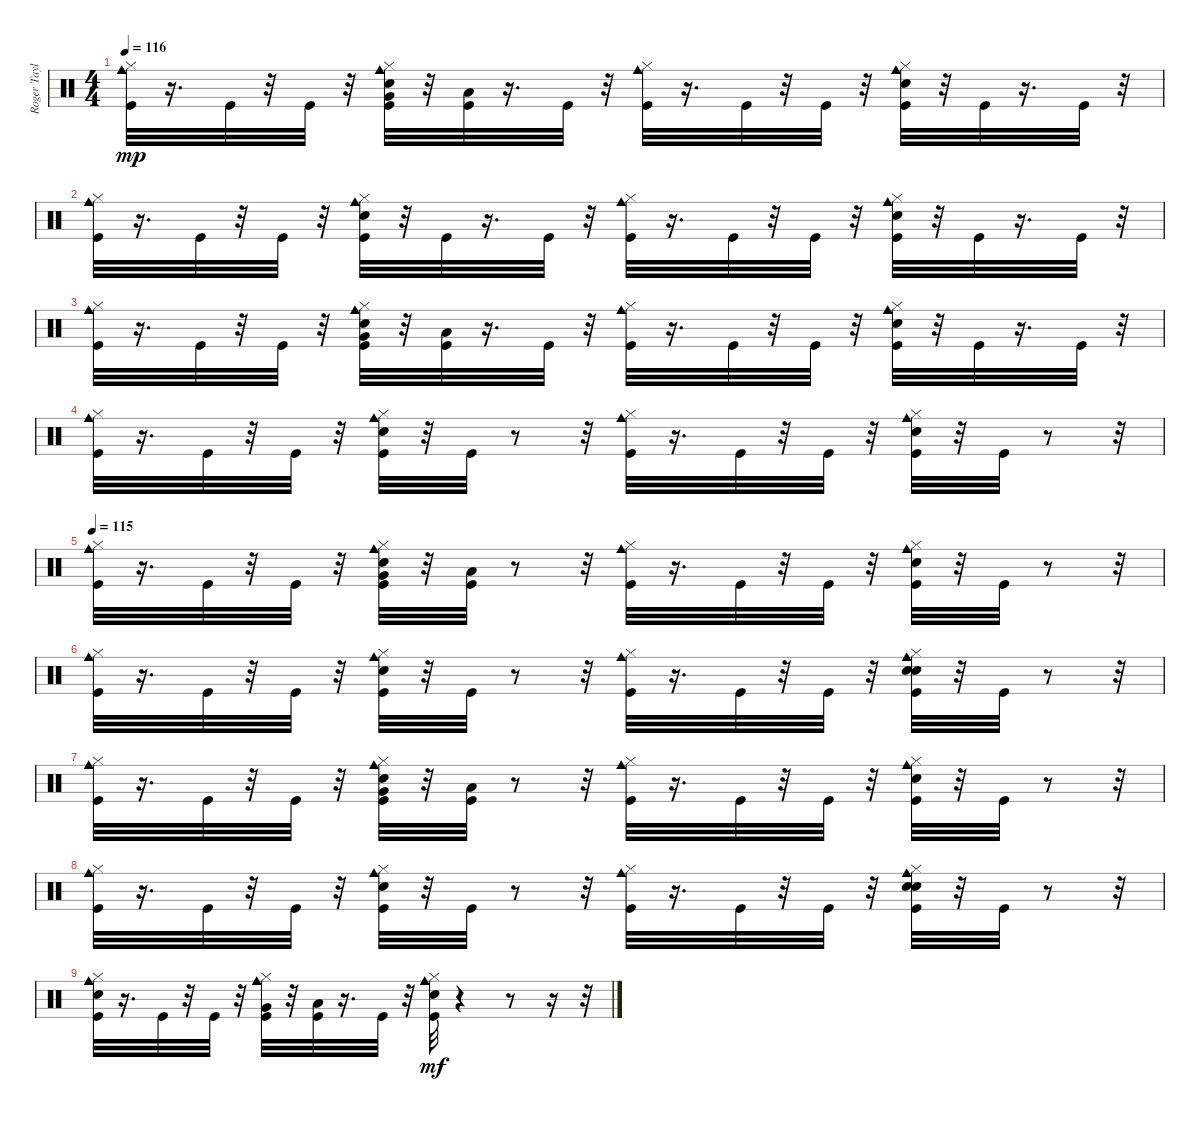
\track ("Roger Taylor" "Roger Tayl") {instrument percussion}
\staff {score}
\articulation defaults
\ts (4 4)
\tempo 116
\clef neutral
\ks c
("Cowbell medium (hit)" "Hi-Hat (closed)" "Kick (hit)").32{dy mp} r.16{d} "Kick (hit)".32 r.32 "Kick (hit)".32 r.32 ("Very Low Tom (hit)" "Hand Clap (hit)" "Cowbell medium (hit)" "Hi-Hat (closed)" "Kick (hit)").32 r.32 ("Low Floor Tom (hit)" "Kick (hit)").32 r.16{d} "Kick (hit)".32 r.32 ("Cowbell medium (hit)" "Hi-Hat (closed)" "Kick (hit)").32 r.16{d} "Kick (hit)".32 r.32 "Kick (hit)".32 r.32 ("Snare (hit)" "Cowbell medium (hit)" "Hi-Hat (closed)" "Kick (hit)").32 r.32 "Kick (hit)".32 r.16{d} "Kick (hit)".32 r.32 |
("Cowbell medium (hit)" "Hi-Hat (closed)" "Kick (hit)").32 r.16{d} "Kick (hit)".32 r.32 "Kick (hit)".32 r.32 ("Snare (hit)" "Cowbell medium (hit)" "Hi-Hat (closed)" "Kick (hit)").32 r.32 "Kick (hit)".32 r.16{d} "Kick (hit)".32 r.32 ("Cowbell medium (hit)" "Hi-Hat (closed)" "Kick (hit)").32 r.16{d} "Kick (hit)".32 r.32 "Kick (hit)".32 r.32 ("Snare (hit)" "Cowbell medium (hit)" "Hi-Hat (closed)" "Kick (hit)").32 r.32 "Kick (hit)".32 r.16{d} "Kick (hit)".32 r.32 |
("Cowbell medium (hit)" "Hi-Hat (closed)" "Kick (hit)").32 r.16{d} "Kick (hit)".32 r.32 "Kick (hit)".32 r.32 ("Very Low Tom (hit)" "Snare (hit)" "Cowbell medium (hit)" "Hi-Hat (closed)" "Kick (hit)").32 r.32 ("Low Floor Tom (hit)" "Kick (hit)").32 r.16{d} "Kick (hit)".32 r.32 ("Cowbell medium (hit)" "Hi-Hat (closed)" "Kick (hit)").32 r.16{d} "Kick (hit)".32 r.32 "Kick (hit)".32 r.32 ("Snare (hit)" "Cowbell medium (hit)" "Hi-Hat (closed)" "Kick (hit)").32 r.32 "Kick (hit)".32 r.16{d} "Kick (hit)".32 r.32 |
("Cowbell medium (hit)" "Hi-Hat (closed)" "Kick (hit)").32 r.16{d} "Kick (hit)".32 r.32 "Kick (hit)".32 r.32 ("Hand Clap (hit)" "Cowbell medium (hit)" "Hi-Hat (closed)" "Kick (hit)").32 r.32 "Kick (hit)".32 r.8 r.32 ("Cowbell medium (hit)" "Hi-Hat (closed)" "Kick (hit)").32 r.16{d} "Kick (hit)".32 r.32 "Kick (hit)".32 r.32 ("Snare (hit)" "Cowbell medium (hit)" "Hi-Hat (closed)" "Kick (hit)").32 r.32 "Kick (hit)".32 r.8 r.32 |
\tempo 115
("Cowbell medium (hit)" "Hi-Hat (closed)" "Kick (hit)").32 r.16{d} "Kick (hit)".32 r.32 "Kick (hit)".32 r.32 ("Very Low Tom (hit)" "Snare (hit)" "Cowbell medium (hit)" "Hi-Hat (closed)" "Kick (hit)").32 r.32 ("Low Floor Tom (hit)" "Kick (hit)").32 r.8 r.32 ("Cowbell medium (hit)" "Hi-Hat (closed)" "Kick (hit)").32 r.16{d} "Kick (hit)".32 r.32 "Kick (hit)".32 r.32 ("Snare (hit)" "Cowbell medium (hit)" "Hi-Hat (closed)" "Kick (hit)").32 r.32 "Kick (hit)".32 r.8 r.32 |
("Cowbell medium (hit)" "Hi-Hat (closed)" "Kick (hit)").32 r.16{d} "Kick (hit)".32 r.32 "Kick (hit)".32 r.32 ("Snare (hit)" "Cowbell medium (hit)" "Hi-Hat (closed)" "Kick (hit)").32 r.32 "Kick (hit)".32 r.8 r.32 ("Cowbell medium (hit)" "Hi-Hat (closed)" "Kick (hit)").32 r.16{d} "Kick (hit)".32 r.32 "Kick (hit)".32 r.32 ("Hand Clap (hit)" "Snare (hit)" "Cowbell medium (hit)" "Hi-Hat (closed)" "Kick (hit)").32 r.32 "Kick (hit)".32 r.8 r.32 |
("Cowbell medium (hit)" "Hi-Hat (closed)" "Kick (hit)").32 r.16{d} "Kick (hit)".32 r.32 "Kick (hit)".32 r.32 ("Very Low Tom (hit)" "Snare (hit)" "Cowbell medium (hit)" "Hi-Hat (closed)" "Kick (hit)").32 r.32 ("Low Floor Tom (hit)" "Kick (hit)").32 r.8 r.32 ("Cowbell medium (hit)" "Hi-Hat (closed)" "Kick (hit)").32 r.16{d} "Kick (hit)".32 r.32 "Kick (hit)".32 r.32 ("Hand Clap (hit)" "Cowbell medium (hit)" "Hi-Hat (closed)" "Kick (hit)").32 r.32 "Kick (hit)".32 r.8 r.32 |
("Cowbell medium (hit)" "Hi-Hat (closed)" "Kick (hit)").32 r.16{d} "Kick (hit)".32 r.32 "Kick (hit)".32 r.32 ("Hand Clap (hit)" "Cowbell medium (hit)" "Hi-Hat (closed)" "Kick (hit)").32 r.32 "Kick (hit)".32 r.8 r.32 ("Hi-Hat (closed)" "Cowbell medium (hit)" "Kick (hit)").32 r.16{d} "Kick (hit)".32 r.32 "Kick (hit)".32 r.32 ("Hand Clap (hit)" "Hi-Hat (closed)" "Cowbell medium (hit)" "Snare (hit)" "Kick (hit)").32 r.32 "Kick (hit)".32 r.8 r.32 |
("Snare (hit)" "Cowbell medium (hit)" "Hi-Hat (closed)" "Kick (hit)").32 r.16{d} "Kick (hit)".32 r.32 "Kick (hit)".32 r.32 ("Very Low Tom (hit)" "Cowbell medium (hit)" "Hi-Hat (closed)" "Kick (hit)").32 r.32 ("Low Floor Tom (hit)" "Kick (hit)").32 r.16{d} "Kick (hit)".32 r.32 ("Hand Clap (hit)" "Cowbell medium (hit)" "Hi-Hat (closed)" "Kick (hit)").32{dy mf} r.4 r.8 r.16 r.32
